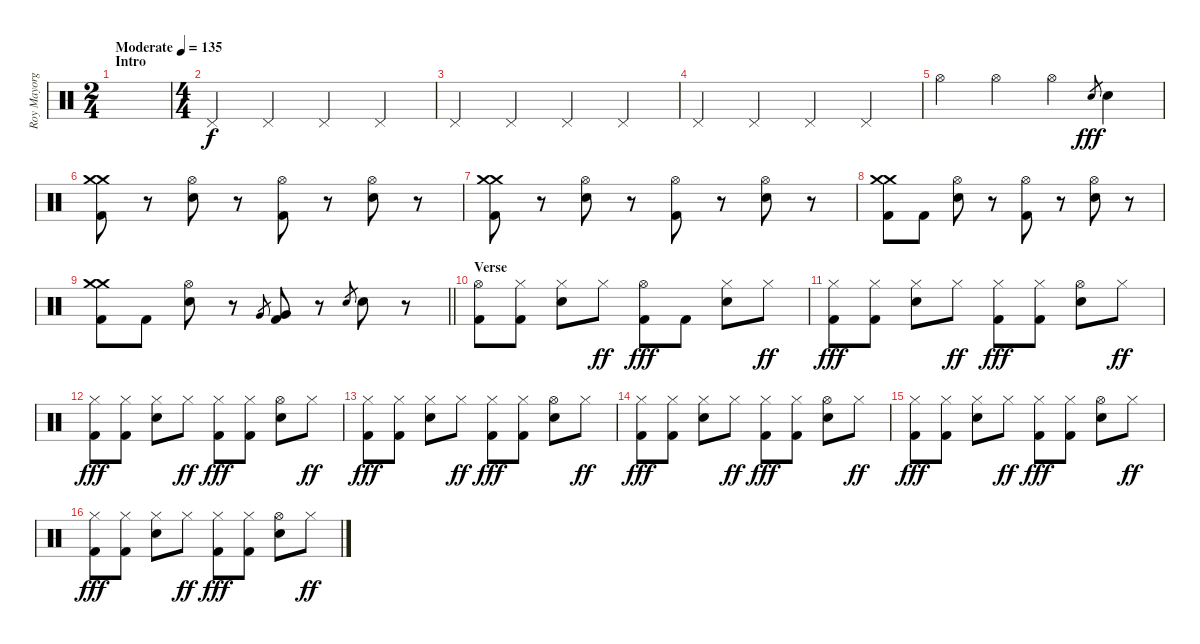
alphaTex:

\track ("Roy Mayorga" "Roy Mayorg") {instrument percussion}
\staff {score}
\articulation defaults
\ts (2 4)
\section ("" "Intro")
\tempo (135 "Moderate")
\clef neutral
\ks c
|
\ts (4 4)
"Pedal Hi-Hat (hit)".4 "Pedal Hi-Hat (hit)".4 "Pedal Hi-Hat (hit)".4 "Pedal Hi-Hat (hit)".4 |
"Pedal Hi-Hat (hit)".4 "Pedal Hi-Hat (hit)".4 "Pedal Hi-Hat (hit)".4 "Pedal Hi-Hat (hit)".4 |
"Pedal Hi-Hat (hit)".4 "Pedal Hi-Hat (hit)".4 "Pedal Hi-Hat (hit)".4 "Pedal Hi-Hat (hit)".4 |
"Hi-Hat (open)".4 "Hi-Hat (open)".4 "Hi-Hat (open)".4 "Electric Snare (hit)".8{gr dy fff} "Electric Snare (hit)".4 |
("Crash medium (hit)" "Crash medium (hit)" "Kick (hit) 2").8 r.8 ("Hi-Hat (open)" "Electric Snare (hit)").8 r.8 ("Hi-Hat (open)" "Kick (hit) 2").8 r.8 ("Hi-Hat (open)" "Electric Snare (hit)").8 r.8 |
("Crash medium (hit)" "Crash medium (hit)" "Kick (hit) 2").8 r.8 ("Hi-Hat (open)" "Electric Snare (hit)").8 r.8 ("Hi-Hat (open)" "Kick (hit) 2").8 r.8 ("Hi-Hat (open)" "Electric Snare (hit)").8 r.8 |
("Crash medium (hit)" "Crash medium (hit)" "Kick (hit) 2").8 "Kick (hit) 2".8 ("Hi-Hat (open)" "Electric Snare (hit)").8 r.8 ("Hi-Hat (open)" "Kick (hit) 2").8 r.8 ("Hi-Hat (open)" "Electric Snare (hit)").8 r.8 |
\barLineRight lightlight
("Crash medium (hit)" "Crash medium (hit)" "Kick (hit) 2").8 "Kick (hit) 2".8 ("Hi-Hat (open)" "Electric Snare (hit)").8 r.8 "Very Low Tom (hit)".8{gr} ("Very Low Tom (hit)" "Kick (hit) 2").8 r.8 "Electric Snare (hit)".8{gr} "Electric Snare (hit)".8 r.8 |
\section ("" "Verse")
("Hi-Hat (open)" "Kick (hit) 2").8 ("Hi-Hat (closed)" "Kick (hit) 2").8 ("Hi-Hat (closed)" "Electric Snare (hit)").8 "Hi-Hat (closed)".8{dy ff} ("Hi-Hat (open)" "Kick (hit) 2").8{dy fff} "Kick (hit) 2".8 ("Hi-Hat (closed)" "Electric Snare (hit)").8 "Hi-Hat (closed)".8{dy ff} |
("Hi-Hat (closed)" "Kick (hit) 2").8{dy fff} ("Hi-Hat (closed)" "Kick (hit) 2").8 ("Hi-Hat (closed)" "Electric Snare (hit)").8 "Hi-Hat (closed)".8{dy ff} ("Hi-Hat (closed)" "Kick (hit) 2").8{dy fff} ("Hi-Hat (closed)" "Kick (hit) 2").8 ("Hi-Hat (open)" "Electric Snare (hit)").8 "Hi-Hat (closed)".8{dy ff} |
("Hi-Hat (closed)" "Kick (hit) 2").8{dy fff} ("Hi-Hat (closed)" "Kick (hit) 2").8 ("Hi-Hat (closed)" "Electric Snare (hit)").8 "Hi-Hat (closed)".8{dy ff} ("Hi-Hat (closed)" "Kick (hit) 2").8{dy fff} ("Hi-Hat (closed)" "Kick (hit) 2").8 ("Hi-Hat (open)" "Electric Snare (hit)").8 "Hi-Hat (closed)".8{dy ff} |
("Hi-Hat (closed)" "Kick (hit) 2").8{dy fff} ("Hi-Hat (closed)" "Kick (hit) 2").8 ("Hi-Hat (closed)" "Electric Snare (hit)").8 "Hi-Hat (closed)".8{dy ff} ("Hi-Hat (closed)" "Kick (hit) 2").8{dy fff} ("Hi-Hat (closed)" "Kick (hit) 2").8 ("Hi-Hat (open)" "Electric Snare (hit)").8 "Hi-Hat (closed)".8{dy ff} |
("Hi-Hat (closed)" "Kick (hit) 2").8{dy fff} ("Hi-Hat (closed)" "Kick (hit) 2").8 ("Hi-Hat (closed)" "Electric Snare (hit)").8 "Hi-Hat (closed)".8{dy ff} ("Hi-Hat (closed)" "Kick (hit) 2").8{dy fff} ("Hi-Hat (closed)" "Kick (hit) 2").8 ("Hi-Hat (open)" "Electric Snare (hit)").8 "Hi-Hat (closed)".8{dy ff} |
("Hi-Hat (closed)" "Kick (hit) 2").8{dy fff} ("Hi-Hat (closed)" "Kick (hit) 2").8 ("Hi-Hat (closed)" "Electric Snare (hit)").8 "Hi-Hat (closed)".8{dy ff} ("Hi-Hat (closed)" "Kick (hit) 2").8{dy fff} ("Hi-Hat (closed)" "Kick (hit) 2").8 ("Hi-Hat (open)" "Electric Snare (hit)").8 "Hi-Hat (closed)".8{dy ff} |
("Hi-Hat (closed)" "Kick (hit) 2").8{dy fff} ("Hi-Hat (closed)" "Kick (hit) 2").8 ("Hi-Hat (closed)" "Electric Snare (hit)").8 "Hi-Hat (closed)".8{dy ff} ("Hi-Hat (closed)" "Kick (hit) 2").8{dy fff} ("Hi-Hat (closed)" "Kick (hit) 2").8 ("Hi-Hat (open)" "Electric Snare (hit)").8 "Hi-Hat (closed)".8{dy ff}
